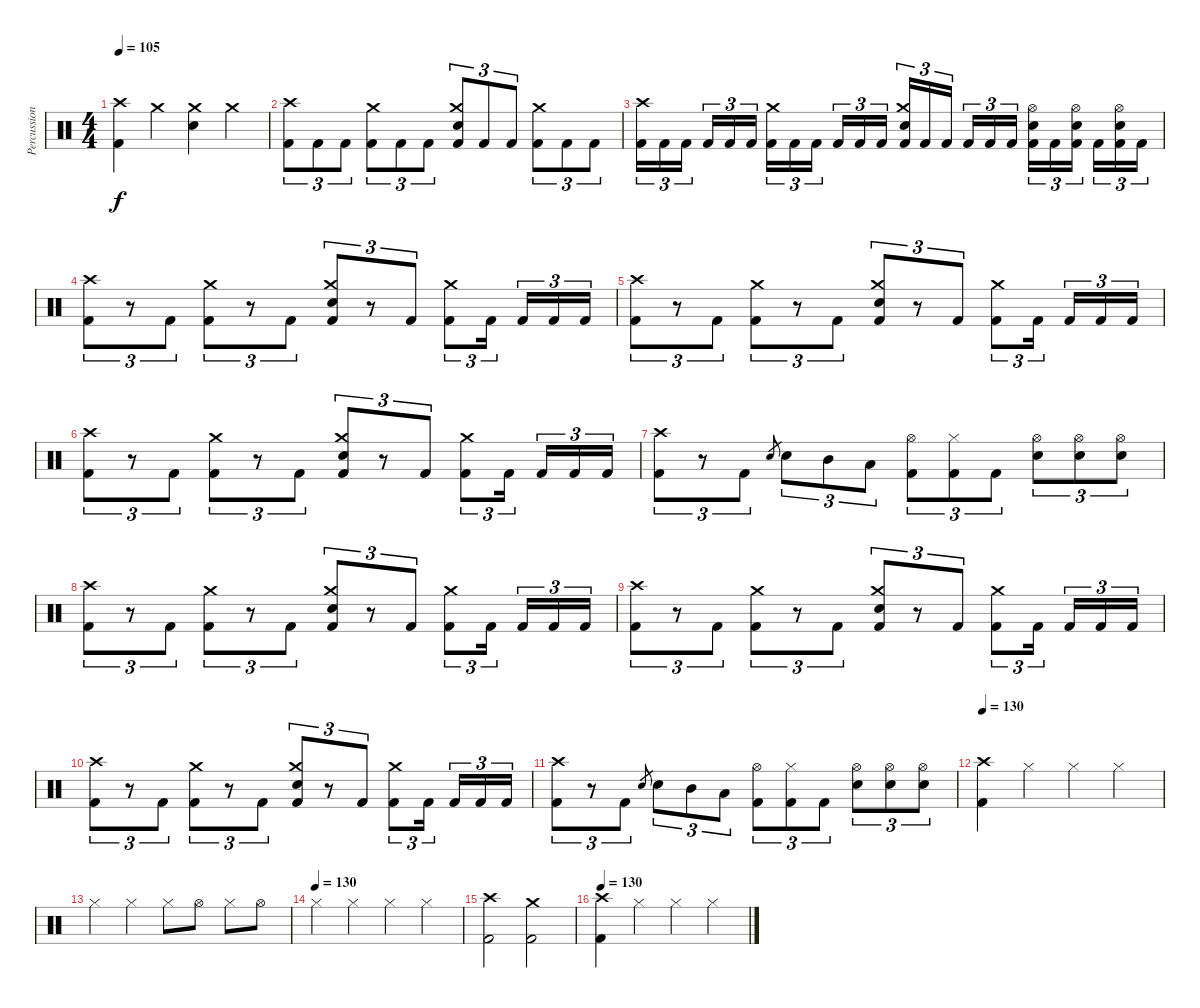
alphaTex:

\track ("Percussion" "Percussion") {instrument percussion}
\staff {score}
\articulation defaults
\ts (4 4)
\tempo 105
\clef neutral
\ks c
("Crash high (hit)" "Kick (hit) 2").4{dy f} "Crash medium (hit)".4 ("Crash medium (hit)" "Electric Snare (hit)").4 "Crash medium (hit)".4 |
("Crash high (hit)" "Kick (hit) 2").8{tu (3 2)} "Kick (hit) 2".8{tu (3 2)} "Kick (hit) 2".8{tu (3 2)} ("Crash medium (hit)" "Kick (hit) 2").8{tu (3 2)} "Kick (hit) 2".8{tu (3 2)} "Kick (hit) 2".8{tu (3 2)} ("Crash medium (hit)" "Electric Snare (hit)" "Kick (hit) 2").8{tu (3 2)} "Kick (hit) 2".8{tu (3 2)} "Kick (hit) 2".8{tu (3 2)} ("Crash medium (hit)" "Kick (hit) 2").8{tu (3 2)} "Kick (hit) 2".8{tu (3 2)} "Kick (hit) 2".8{tu (3 2)} |
("Crash high (hit)" "Kick (hit) 2").16{tu (3 2)} "Kick (hit) 2".16{tu (3 2)} "Kick (hit) 2".16{tu (3 2)} "Kick (hit) 2".16{tu (3 2)} "Kick (hit) 2".16{tu (3 2)} "Kick (hit) 2".16{tu (3 2)} ("Crash medium (hit)" "Kick (hit) 2").16{tu (3 2)} "Kick (hit) 2".16{tu (3 2)} "Kick (hit) 2".16{tu (3 2)} "Kick (hit) 2".16{tu (3 2)} "Kick (hit) 2".16{tu (3 2)} "Kick (hit) 2".16{tu (3 2)} ("Crash medium (hit)" "Electric Snare (hit)" "Kick (hit) 2").16{tu (3 2)} "Kick (hit) 2".16{tu (3 2)} "Kick (hit) 2".16{tu (3 2)} "Kick (hit) 2".16{tu (3 2)} "Kick (hit) 2".16{tu (3 2)} "Kick (hit) 2".16{tu (3 2)} ("Hi-Hat (open)" "Electric Snare (hit)" "Kick (hit) 2").16{tu (3 2)} "Kick (hit) 2".16{tu (3 2)} ("Hi-Hat (open)" "Electric Snare (hit)" "Kick (hit) 2").16{tu (3 2)} "Kick (hit) 2".16{tu (3 2)} ("Hi-Hat (open)" "Electric Snare (hit)" "Kick (hit) 2").16{tu (3 2)} "Kick (hit) 2".16{tu (3 2)} |
("Crash high (hit)" "Kick (hit) 2").8{tu (3 2)} r.8{tu (3 2)} "Kick (hit) 2".8{tu (3 2)} ("Crash medium (hit)" "Kick (hit) 2").8{tu (3 2)} r.8{tu (3 2)} "Kick (hit) 2".8{tu (3 2)} ("Crash medium (hit)" "Electric Snare (hit)" "Kick (hit) 2").8{tu (3 2)} r.8{tu (3 2)} "Kick (hit) 2".8{tu (3 2)} ("Crash medium (hit)" "Kick (hit) 2").8{tu (3 2)} "Kick (hit) 2".16{tu (3 2)} "Kick (hit) 2".16{tu (3 2)} "Kick (hit) 2".16{tu (3 2)} "Kick (hit) 2".16{tu (3 2)} |
("Crash high (hit)" "Kick (hit) 2").8{tu (3 2)} r.8{tu (3 2)} "Kick (hit) 2".8{tu (3 2)} ("Crash medium (hit)" "Kick (hit) 2").8{tu (3 2)} r.8{tu (3 2)} "Kick (hit) 2".8{tu (3 2)} ("Crash medium (hit)" "Electric Snare (hit)" "Kick (hit) 2").8{tu (3 2)} r.8{tu (3 2)} "Kick (hit) 2".8{tu (3 2)} ("Crash medium (hit)" "Kick (hit) 2").8{tu (3 2)} "Kick (hit) 2".16{tu (3 2)} "Kick (hit) 2".16{tu (3 2)} "Kick (hit) 2".16{tu (3 2)} "Kick (hit) 2".16{tu (3 2)} |
("Crash high (hit)" "Kick (hit) 2").8{tu (3 2)} r.8{tu (3 2)} "Kick (hit) 2".8{tu (3 2)} ("Crash medium (hit)" "Kick (hit) 2").8{tu (3 2)} r.8{tu (3 2)} "Kick (hit) 2".8{tu (3 2)} ("Crash medium (hit)" "Electric Snare (hit)" "Kick (hit) 2").8{tu (3 2)} r.8{tu (3 2)} "Kick (hit) 2".8{tu (3 2)} ("Crash medium (hit)" "Kick (hit) 2").8{tu (3 2)} "Kick (hit) 2".16{tu (3 2)} "Kick (hit) 2".16{tu (3 2)} "Kick (hit) 2".16{tu (3 2)} "Kick (hit) 2".16{tu (3 2)} |
("Crash high (hit)" "Kick (hit) 2").8{tu (3 2)} r.8{tu (3 2)} "Kick (hit) 2".8{tu (3 2)} "Electric Snare (hit)".8{gr} "Electric Snare (hit)".8{tu (3 2)} "Mid Tom (hit)".8{tu (3 2)} "Low Tom (hit)".8{tu (3 2)} ("Hi-Hat (open)" "Kick (hit) 2").8{tu (3 2)} ("Hi-Hat (closed)" "Kick (hit) 2").8{tu (3 2)} "Kick (hit) 2".8{tu (3 2)} ("Hi-Hat (open)" "Electric Snare (hit)").8{tu (3 2)} ("Hi-Hat (open)" "Electric Snare (hit)").8{tu (3 2)} ("Hi-Hat (open)" "Electric Snare (hit)").8{tu (3 2)} |
("Crash high (hit)" "Kick (hit) 2").8{tu (3 2)} r.8{tu (3 2)} "Kick (hit) 2".8{tu (3 2)} ("Crash medium (hit)" "Kick (hit) 2").8{tu (3 2)} r.8{tu (3 2)} "Kick (hit) 2".8{tu (3 2)} ("Crash medium (hit)" "Electric Snare (hit)" "Kick (hit) 2").8{tu (3 2)} r.8{tu (3 2)} "Kick (hit) 2".8{tu (3 2)} ("Crash medium (hit)" "Kick (hit) 2").8{tu (3 2)} "Kick (hit) 2".16{tu (3 2)} "Kick (hit) 2".16{tu (3 2)} "Kick (hit) 2".16{tu (3 2)} "Kick (hit) 2".16{tu (3 2)} |
("Crash high (hit)" "Kick (hit) 2").8{tu (3 2)} r.8{tu (3 2)} "Kick (hit) 2".8{tu (3 2)} ("Crash medium (hit)" "Kick (hit) 2").8{tu (3 2)} r.8{tu (3 2)} "Kick (hit) 2".8{tu (3 2)} ("Crash medium (hit)" "Electric Snare (hit)" "Kick (hit) 2").8{tu (3 2)} r.8{tu (3 2)} "Kick (hit) 2".8{tu (3 2)} ("Crash medium (hit)" "Kick (hit) 2").8{tu (3 2)} "Kick (hit) 2".16{tu (3 2)} "Kick (hit) 2".16{tu (3 2)} "Kick (hit) 2".16{tu (3 2)} "Kick (hit) 2".16{tu (3 2)} |
("Crash high (hit)" "Kick (hit) 2").8{tu (3 2)} r.8{tu (3 2)} "Kick (hit) 2".8{tu (3 2)} ("Crash medium (hit)" "Kick (hit) 2").8{tu (3 2)} r.8{tu (3 2)} "Kick (hit) 2".8{tu (3 2)} ("Crash medium (hit)" "Electric Snare (hit)" "Kick (hit) 2").8{tu (3 2)} r.8{tu (3 2)} "Kick (hit) 2".8{tu (3 2)} ("Crash medium (hit)" "Kick (hit) 2").8{tu (3 2)} "Kick (hit) 2".16{tu (3 2)} "Kick (hit) 2".16{tu (3 2)} "Kick (hit) 2".16{tu (3 2)} "Kick (hit) 2".16{tu (3 2)} |
("Crash high (hit)" "Kick (hit) 2").8{tu (3 2)} r.8{tu (3 2)} "Kick (hit) 2".8{tu (3 2)} "Electric Snare (hit)".8{gr} "Electric Snare (hit)".8{tu (3 2)} "Mid Tom (hit)".8{tu (3 2)} "Low Tom (hit)".8{tu (3 2)} ("Hi-Hat (open)" "Kick (hit) 2").8{tu (3 2)} ("Hi-Hat (closed)" "Kick (hit) 2").8{tu (3 2)} "Kick (hit) 2".8{tu (3 2)} ("Hi-Hat (open)" "Electric Snare (hit)").8{tu (3 2)} ("Hi-Hat (open)" "Electric Snare (hit)").8{tu (3 2)} ("Hi-Hat (open)" "Electric Snare (hit)").8{tu (3 2)} |
\tempo 130
("Crash high (hit)" "Kick (hit) 2").4 "Hi-Hat (closed)".4 "Hi-Hat (closed)".4 "Hi-Hat (closed)".4 |
"Hi-Hat (closed)".4 "Hi-Hat (closed)".4 "Hi-Hat (closed)".8 "Hi-Hat (open)".8 "Hi-Hat (closed)".8 "Hi-Hat (open)".8 |
\tempo (130)
"Hi-Hat (closed)".4 "Hi-Hat (closed)".4 "Hi-Hat (closed)".4 "Hi-Hat (closed)".4 |
("Crash high (hit)" "Kick (hit) 2").2 ("Crash medium (hit)" "Kick (hit) 2").2 |
\tempo 130
("Crash high (hit)" "Kick (hit) 2").4 "Hi-Hat (closed)".4 "Hi-Hat (closed)".4 "Hi-Hat (closed)".4
